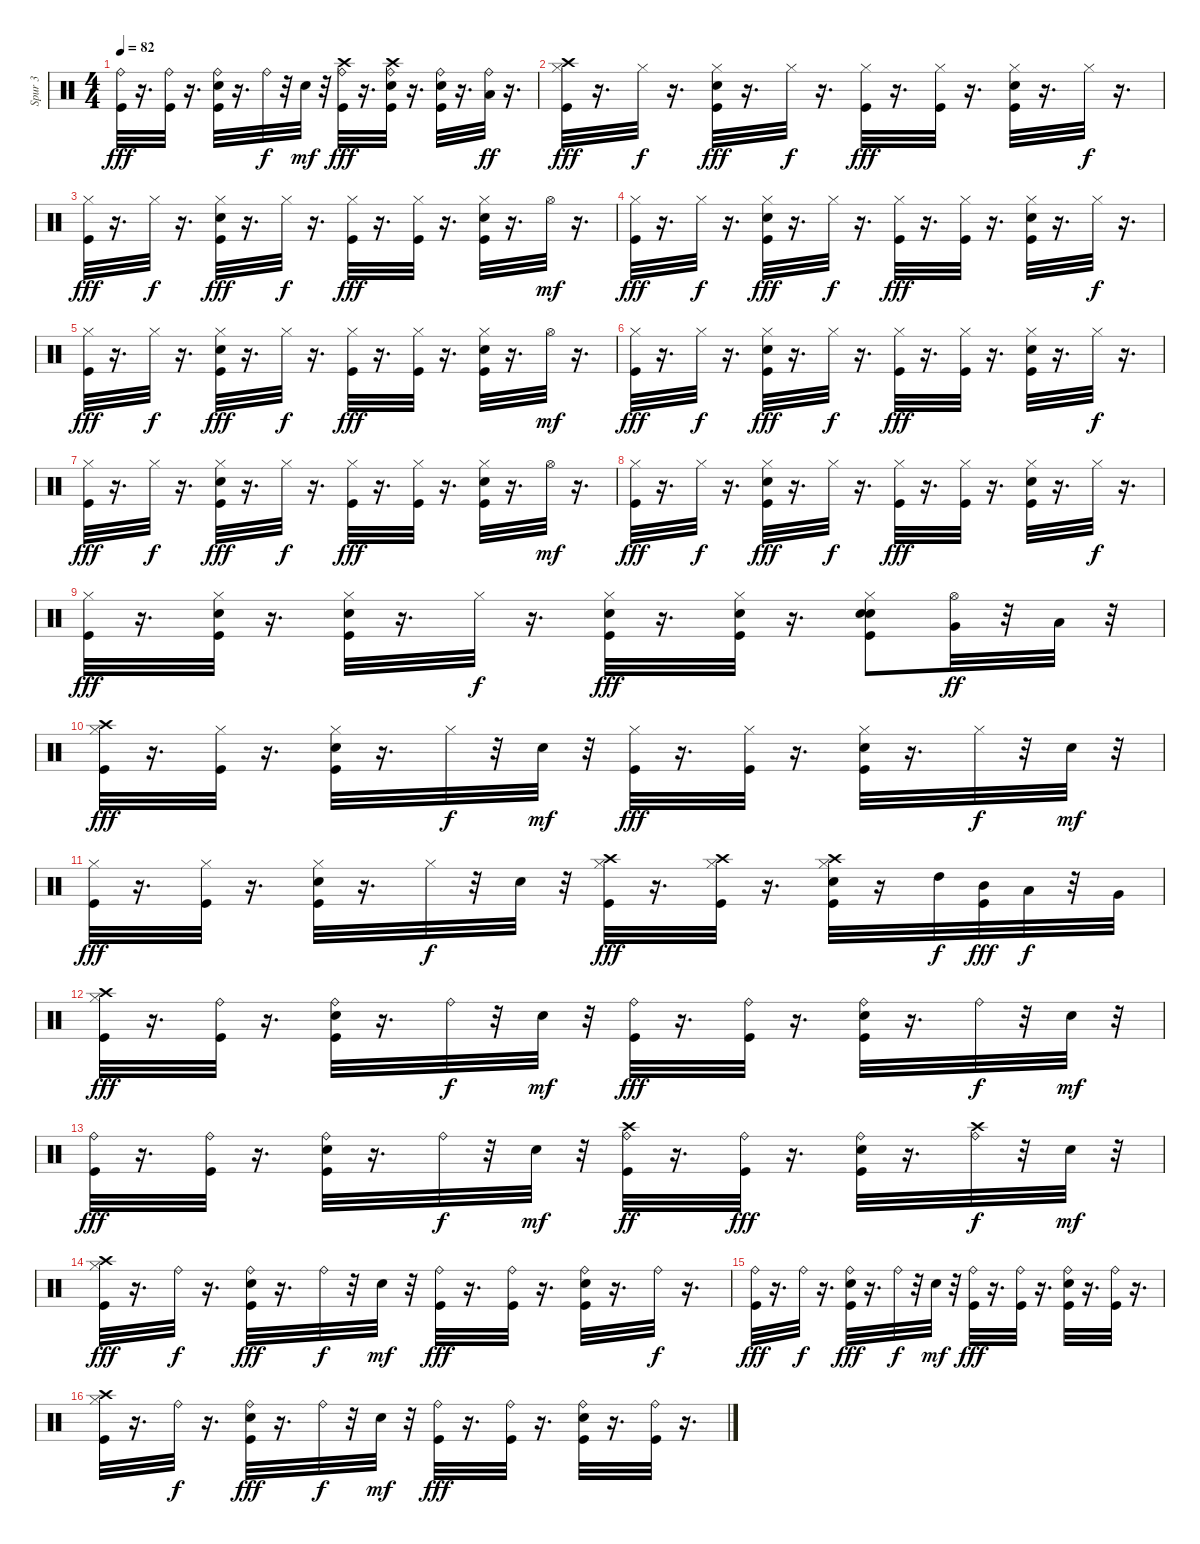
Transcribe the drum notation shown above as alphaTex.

\track ("Spur 3" "Spur 3") {instrument percussion}
\staff {score}
\articulation defaults
\ts (4 4)
\tempo 82
\clef neutral
\ks c
("Kick (hit)" "Ride (bell)").32{dy fff} r.16{d} ("Kick (hit)" "Ride (bell)").32 r.16{d} ("Snare (hit) 2" "Kick (hit)" "Ride (bell)").32 r.16{d} "Ride (bell)".32{dy f} r.32 "Snare (hit) 2".32{dy mf} r.32 ("Kick (hit)" "Ride (bell)" "Crash high (hit)").32{dy fff} r.16{d} ("Kick (hit)" "Snare (hit) 2" "Crash high (hit)" "Ride (bell)").32 r.16{d} ("Kick (hit)" "Snare (hit) 2" "Ride (bell)").32 r.16{d} ("Ride (bell)" "Low Floor Tom (hit)").32{dy ff} r.16{d} |
("Hi-Hat (closed)" "Crash high (hit)" "Kick (hit)").32{dy fff} r.16{d} "Hi-Hat (closed)".32{dy f} r.16{d} ("Hi-Hat (closed)" "Snare (hit) 2" "Kick (hit)").32{dy fff} r.16{d} "Hi-Hat (closed)".32{dy f} r.16{d} ("Hi-Hat (closed)" "Kick (hit)").32{dy fff} r.16{d} ("Hi-Hat (closed)" "Kick (hit)").32 r.16{d} ("Hi-Hat (closed)" "Snare (hit) 2" "Kick (hit)").32 r.16{d} "Hi-Hat (closed)".32{dy f} r.16{d} |
("Kick (hit)" "Hi-Hat (closed)").32{dy fff} r.16{d} "Hi-Hat (closed)".32{dy f} r.16{d} ("Snare (hit) 2" "Kick (hit)" "Hi-Hat (closed)").32{dy fff} r.16{d} "Hi-Hat (closed)".32{dy f} r.16{d} ("Kick (hit)" "Hi-Hat (closed)").32{dy fff} r.16{d} ("Kick (hit)" "Hi-Hat (closed)").32 r.16{d} ("Snare (hit) 2" "Kick (hit)" "Hi-Hat (closed)").32 r.16{d} "Hi-Hat (open)".32{dy mf} r.16{d} |
("Hi-Hat (closed)" "Kick (hit)").32{dy fff} r.16{d} "Hi-Hat (closed)".32{dy f} r.16{d} ("Hi-Hat (closed)" "Snare (hit) 2" "Kick (hit)").32{dy fff} r.16{d} "Hi-Hat (closed)".32{dy f} r.16{d} ("Hi-Hat (closed)" "Kick (hit)").32{dy fff} r.16{d} ("Hi-Hat (closed)" "Kick (hit)").32 r.16{d} ("Hi-Hat (closed)" "Snare (hit) 2" "Kick (hit)").32 r.16{d} "Hi-Hat (closed)".32{dy f} r.16{d} |
("Kick (hit)" "Hi-Hat (closed)").32{dy fff} r.16{d} "Hi-Hat (closed)".32{dy f} r.16{d} ("Snare (hit) 2" "Kick (hit)" "Hi-Hat (closed)").32{dy fff} r.16{d} "Hi-Hat (closed)".32{dy f} r.16{d} ("Kick (hit)" "Hi-Hat (closed)").32{dy fff} r.16{d} ("Kick (hit)" "Hi-Hat (closed)").32 r.16{d} ("Snare (hit) 2" "Kick (hit)" "Hi-Hat (closed)").32 r.16{d} "Hi-Hat (open)".32{dy mf} r.16{d} |
("Hi-Hat (closed)" "Kick (hit)").32{dy fff} r.16{d} "Hi-Hat (closed)".32{dy f} r.16{d} ("Hi-Hat (closed)" "Snare (hit) 2" "Kick (hit)").32{dy fff} r.16{d} "Hi-Hat (closed)".32{dy f} r.16{d} ("Hi-Hat (closed)" "Kick (hit)").32{dy fff} r.16{d} ("Hi-Hat (closed)" "Kick (hit)").32 r.16{d} ("Hi-Hat (closed)" "Snare (hit) 2" "Kick (hit)").32 r.16{d} "Hi-Hat (closed)".32{dy f} r.16{d} |
("Hi-Hat (closed)" "Kick (hit)").32{dy fff} r.16{d} "Hi-Hat (closed)".32{dy f} r.16{d} ("Hi-Hat (closed)" "Snare (hit) 2" "Kick (hit)").32{dy fff} r.16{d} "Hi-Hat (closed)".32{dy f} r.16{d} ("Hi-Hat (closed)" "Kick (hit)").32{dy fff} r.16{d} ("Hi-Hat (closed)" "Kick (hit)").32 r.16{d} ("Hi-Hat (closed)" "Snare (hit) 2" "Kick (hit)").32 r.16{d} "Hi-Hat (open)".32{dy mf} r.16{d} |
("Hi-Hat (closed)" "Kick (hit)").32{dy fff} r.16{d} "Hi-Hat (closed)".32{dy f} r.16{d} ("Hi-Hat (closed)" "Snare (hit) 2" "Kick (hit)").32{dy fff} r.16{d} "Hi-Hat (closed)".32{dy f} r.16{d} ("Hi-Hat (closed)" "Kick (hit)").32{dy fff} r.16{d} ("Hi-Hat (closed)" "Kick (hit)").32 r.16{d} ("Hi-Hat (closed)" "Snare (hit) 2" "Kick (hit)").32 r.16{d} "Hi-Hat (closed)".32{dy f} r.16{d} |
("Kick (hit)" "Hi-Hat (closed)").32{dy fff} r.16{d} ("Hi-Hat (closed)" "Snare (hit) 2" "Kick (hit)").32 r.16{d} ("Snare (hit) 2" "Kick (hit)" "Hi-Hat (closed)").32 r.16{d} "Hi-Hat (closed)".32{dy f} r.16{d} ("Kick (hit)" "Snare (hit) 2" "Hi-Hat (closed)").32{dy fff} r.16{d} ("Kick (hit)" "Snare (hit) 2" "Hi-Hat (closed)").32 r.16{d} ("Snare (hit) 2" "Kick (hit)" "Snare (hit) 2" "Hi-Hat (closed)").8 ("Hi-Hat (open)" "Very Low Tom (hit)").32{dy ff} r.32 "Low Floor Tom (hit)".32 r.32 |
("Hi-Hat (closed)" "Crash high (hit)" "Kick (hit)").32{dy fff} r.16{d} ("Kick (hit)" "Hi-Hat (closed)").32 r.16{d} ("Hi-Hat (closed)" "Snare (hit) 2" "Kick (hit)").32 r.16{d} "Hi-Hat (closed)".32{dy f} r.32 "Snare (hit) 2".32{dy mf} r.32 ("Hi-Hat (closed)" "Kick (hit)").32{dy fff} r.16{d} ("Kick (hit)" "Hi-Hat (closed)").32 r.16{d} ("Hi-Hat (closed)" "Snare (hit) 2" "Kick (hit)").32 r.16{d} "Hi-Hat (closed)".32{dy f} r.32 "Snare (hit) 2".32{dy mf} r.32 |
("Hi-Hat (closed)" "Kick (hit)").32{dy fff} r.16{d} ("Kick (hit)" "Hi-Hat (closed)").32 r.16{d} ("Hi-Hat (closed)" "Snare (hit) 2" "Kick (hit)").32 r.16{d} "Hi-Hat (closed)".32{dy f} r.32 "Snare (hit) 2".32 r.32 ("Crash high (hit)" "Hi-Hat (closed)" "Kick (hit)").32{dy fff} r.16{d} ("Crash high (hit)" "Hi-Hat (closed)" "Kick (hit)").32 r.16{d} ("Crash high (hit)" "Hi-Hat (closed)" "Snare (hit) 2" "Kick (hit)").32 r.16 "High Tom (hit)".32{dy f} ("Kick (hit)" "Mid Tom (hit)").32{dy fff} "Low Tom (hit)".32{dy f} r.32 "Very Low Tom (hit)".32 |
("Hi-Hat (closed)" "Crash high (hit)" "Kick (hit)").32{dy fff} r.16{d} ("Ride (bell)" "Kick (hit)").32 r.16{d} ("Ride (bell)" "Snare (hit) 2" "Kick (hit)").32 r.16{d} "Ride (bell)".32{dy f} r.32 "Snare (hit) 2".32{dy mf} r.32 ("Ride (bell)" "Kick (hit)").32{dy fff} r.16{d} ("Ride (bell)" "Kick (hit)").32 r.16{d} ("Snare (hit) 2" "Kick (hit)" "Ride (bell)").32 r.16{d} "Ride (bell)".32{dy f} r.32 "Snare (hit) 2".32{dy mf} r.32 |
("Kick (hit)" "Ride (bell)").32{dy fff} r.16{d} ("Kick (hit)" "Ride (bell)").32 r.16{d} ("Snare (hit) 2" "Kick (hit)" "Ride (bell)").32 r.16{d} "Ride (bell)".32{dy f} r.32 "Snare (hit) 2".32{dy mf} r.32 ("Kick (hit)" "Ride (bell)" "Crash high (hit)").32{dy ff} r.16{d} ("Kick (hit)" "Ride (bell)").32{dy fff} r.16{d} ("Kick (hit)" "Snare (hit) 2" "Ride (bell)").32 r.16{d} ("Ride (bell)" "Crash high (hit)").32{dy f} r.32 "Snare (hit) 2".32{dy mf} r.32 |
("Crash high (hit)" "Kick (hit)" "Hi-Hat (closed)").32{dy fff} r.16{d} "Ride (bell)".32{dy f} r.16{d} ("Snare (hit) 2" "Kick (hit)" "Ride (bell)").32{dy fff} r.16{d} "Ride (bell)".32{dy f} r.32 "Snare (hit) 2".32{dy mf} r.32 ("Kick (hit)" "Ride (bell)").32{dy fff} r.16{d} ("Kick (hit)" "Ride (bell)").32 r.16{d} ("Snare (hit) 2" "Kick (hit)" "Ride (bell)").32 r.16{d} "Ride (bell)".32{dy f} r.16{d} |
("Kick (hit)" "Ride (bell)").32{dy fff} r.16{d} "Ride (bell)".32{dy f} r.16{d} ("Snare (hit) 2" "Kick (hit)" "Ride (bell)").32{dy fff} r.16{d} "Ride (bell)".32{dy f} r.32 "Snare (hit) 2".32{dy mf} r.32 ("Kick (hit)" "Ride (bell)").32{dy fff} r.16{d} ("Kick (hit)" "Ride (bell)").32 r.16{d} ("Kick (hit)" "Snare (hit) 2" "Ride (bell)").32 r.16{d} ("Ride (bell)" "Kick (hit)").32 r.16{d} |
("Hi-Hat (closed)" "Crash high (hit)" "Kick (hit)").32 r.16{d} "Ride (bell)".32{dy f} r.16{d} ("Snare (hit) 2" "Kick (hit)" "Ride (bell)").32{dy fff} r.16{d} "Ride (bell)".32{dy f} r.32 "Snare (hit) 2".32{dy mf} r.32 ("Ride (bell)" "Kick (hit)").32{dy fff} r.16{d} ("Kick (hit)" "Ride (bell)").32 r.16{d} ("Snare (hit) 2" "Kick (hit)" "Ride (bell)").32 r.16{d} ("Kick (hit)" "Ride (bell)").32 r.16{d}
